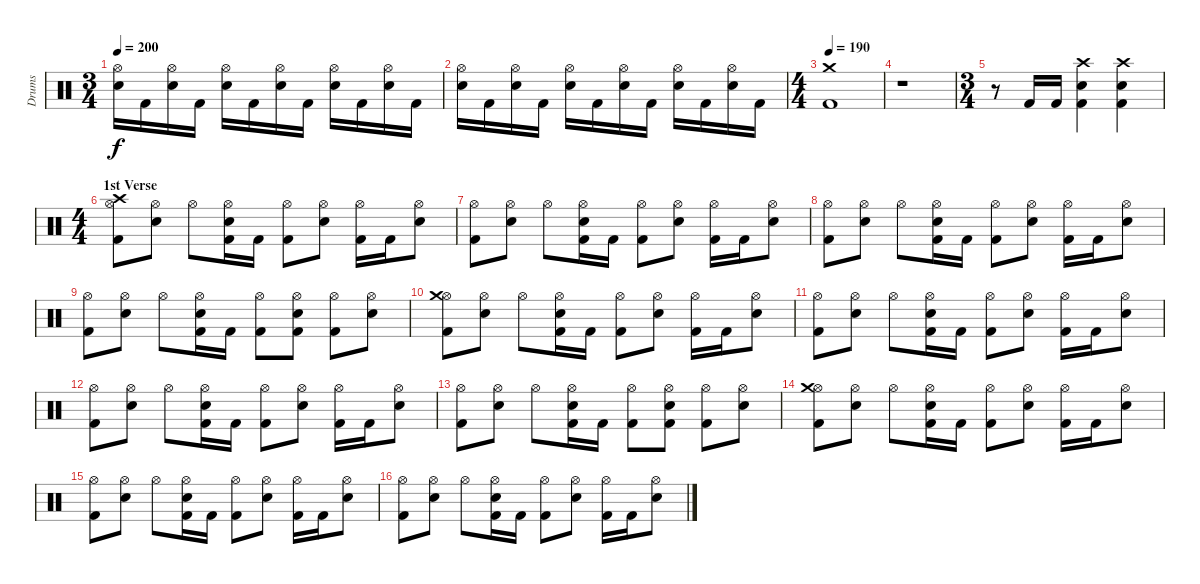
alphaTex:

\track ("Drums" "Drums") {instrument percussion}
\staff {score}
\articulation defaults
\ts (3 4)
\tempo 200
\clef neutral
\ks c
("Snare (hit) 2" "Hi-Hat (open)").16{dy f} "Kick (hit) 2".16 ("Snare (hit) 2" "Hi-Hat (open)").16 "Kick (hit) 2".16 ("Snare (hit) 2" "Hi-Hat (open)").16 "Kick (hit) 2".16 ("Snare (hit) 2" "Hi-Hat (open)").16 "Kick (hit) 2".16 ("Snare (hit) 2" "Hi-Hat (open)").16 "Kick (hit) 2".16 ("Snare (hit) 2" "Hi-Hat (open)").16 "Kick (hit) 2".16 |
("Snare (hit) 2" "Hi-Hat (open)").16 "Kick (hit) 2".16 ("Snare (hit) 2" "Hi-Hat (open)").16 "Kick (hit) 2".16 ("Snare (hit) 2" "Hi-Hat (open)").16 "Kick (hit) 2".16 ("Snare (hit) 2" "Hi-Hat (open)").16 "Kick (hit) 2".16 ("Snare (hit) 2" "Hi-Hat (open)").16 "Kick (hit) 2".16 ("Snare (hit) 2" "Hi-Hat (open)").16 "Kick (hit) 2".16 |
\ts (4 4)
\tempo 190
("Kick (hit) 2" "Crash medium (hit)").1 |
r.1 |
\ts (3 4)
r.8 "Kick (hit) 2".16 "Kick (hit) 2".16 ("Kick (hit) 2" "Electric Snare (hit)" "Crash high (hit)").4 ("Kick (hit) 2" "Electric Snare (hit)" "Crash high (hit)").4 |
\ts (4 4)
\section ("" "1st Verse")
("Kick (hit) 2" "Hi-Hat (open)" "Crash high (hit)").8 ("Electric Snare (hit)" "Hi-Hat (open)").8 "Hi-Hat (open)".8 ("Kick (hit) 2" "Electric Snare (hit)" "Hi-Hat (open)").16 "Kick (hit) 2".16 ("Kick (hit) 2" "Hi-Hat (open)").8 ("Electric Snare (hit)" "Hi-Hat (open)").8 ("Kick (hit) 2" "Hi-Hat (open)").16 "Kick (hit) 2".16 ("Electric Snare (hit)" "Hi-Hat (open)").8 |
("Kick (hit) 2" "Hi-Hat (open)").8 ("Electric Snare (hit)" "Hi-Hat (open)").8 "Hi-Hat (open)".8 ("Kick (hit) 2" "Electric Snare (hit)" "Hi-Hat (open)").16 "Kick (hit) 2".16 ("Kick (hit) 2" "Hi-Hat (open)").8 ("Electric Snare (hit)" "Hi-Hat (open)").8 ("Kick (hit) 2" "Hi-Hat (open)").16 "Kick (hit) 2".16 ("Electric Snare (hit)" "Hi-Hat (open)").8 |
("Kick (hit) 2" "Hi-Hat (open)").8 ("Electric Snare (hit)" "Hi-Hat (open)").8 "Hi-Hat (open)".8 ("Kick (hit) 2" "Electric Snare (hit)" "Hi-Hat (open)").16 "Kick (hit) 2".16 ("Kick (hit) 2" "Hi-Hat (open)").8 ("Electric Snare (hit)" "Hi-Hat (open)").8 ("Kick (hit) 2" "Hi-Hat (open)").16 "Kick (hit) 2".16 ("Electric Snare (hit)" "Hi-Hat (open)").8 |
("Kick (hit) 2" "Hi-Hat (open)").8 ("Electric Snare (hit)" "Hi-Hat (open)").8 "Hi-Hat (open)".8 ("Kick (hit) 2" "Electric Snare (hit)" "Hi-Hat (open)").16 "Kick (hit) 2".16 ("Kick (hit) 2" "Hi-Hat (open)").8 ("Kick (hit) 2" "Electric Snare (hit)" "Hi-Hat (open)").8 ("Kick (hit) 2" "Hi-Hat (open)").8 ("Electric Snare (hit)" "Hi-Hat (open)").8 |
("Kick (hit) 2" "Hi-Hat (open)" "Crash medium (hit)").8 ("Electric Snare (hit)" "Hi-Hat (open)").8 "Hi-Hat (open)".8 ("Kick (hit) 2" "Electric Snare (hit)" "Hi-Hat (open)").16 "Kick (hit) 2".16 ("Kick (hit) 2" "Hi-Hat (open)").8 ("Electric Snare (hit)" "Hi-Hat (open)").8 ("Kick (hit) 2" "Hi-Hat (open)").16 "Kick (hit) 2".16 ("Electric Snare (hit)" "Hi-Hat (open)").8 |
("Kick (hit) 2" "Hi-Hat (open)").8 ("Electric Snare (hit)" "Hi-Hat (open)").8 "Hi-Hat (open)".8 ("Kick (hit) 2" "Electric Snare (hit)" "Hi-Hat (open)").16 "Kick (hit) 2".16 ("Kick (hit) 2" "Hi-Hat (open)").8 ("Electric Snare (hit)" "Hi-Hat (open)").8 ("Kick (hit) 2" "Hi-Hat (open)").16 "Kick (hit) 2".16 ("Electric Snare (hit)" "Hi-Hat (open)").8 |
("Kick (hit) 2" "Hi-Hat (open)").8 ("Electric Snare (hit)" "Hi-Hat (open)").8 "Hi-Hat (open)".8 ("Kick (hit) 2" "Electric Snare (hit)" "Hi-Hat (open)").16 "Kick (hit) 2".16 ("Kick (hit) 2" "Hi-Hat (open)").8 ("Electric Snare (hit)" "Hi-Hat (open)").8 ("Kick (hit) 2" "Hi-Hat (open)").16 "Kick (hit) 2".16 ("Electric Snare (hit)" "Hi-Hat (open)").8 |
("Kick (hit) 2" "Hi-Hat (open)").8 ("Electric Snare (hit)" "Hi-Hat (open)").8 "Hi-Hat (open)".8 ("Kick (hit) 2" "Electric Snare (hit)" "Hi-Hat (open)").16 "Kick (hit) 2".16 ("Kick (hit) 2" "Hi-Hat (open)").8 ("Kick (hit) 2" "Electric Snare (hit)" "Hi-Hat (open)").8 ("Kick (hit) 2" "Hi-Hat (open)").8 ("Electric Snare (hit)" "Hi-Hat (open)").8 |
("Kick (hit) 2" "Hi-Hat (open)" "Crash medium (hit)").8 ("Electric Snare (hit)" "Hi-Hat (open)").8 "Hi-Hat (open)".8 ("Kick (hit) 2" "Electric Snare (hit)" "Hi-Hat (open)").16 "Kick (hit) 2".16 ("Kick (hit) 2" "Hi-Hat (open)").8 ("Electric Snare (hit)" "Hi-Hat (open)").8 ("Kick (hit) 2" "Hi-Hat (open)").16 "Kick (hit) 2".16 ("Electric Snare (hit)" "Hi-Hat (open)").8 |
("Kick (hit) 2" "Hi-Hat (open)").8 ("Electric Snare (hit)" "Hi-Hat (open)").8 "Hi-Hat (open)".8 ("Kick (hit) 2" "Electric Snare (hit)" "Hi-Hat (open)").16 "Kick (hit) 2".16 ("Kick (hit) 2" "Hi-Hat (open)").8 ("Electric Snare (hit)" "Hi-Hat (open)").8 ("Kick (hit) 2" "Hi-Hat (open)").16 "Kick (hit) 2".16 ("Electric Snare (hit)" "Hi-Hat (open)").8 |
("Kick (hit) 2" "Hi-Hat (open)").8 ("Electric Snare (hit)" "Hi-Hat (open)").8 "Hi-Hat (open)".8 ("Kick (hit) 2" "Electric Snare (hit)" "Hi-Hat (open)").16 "Kick (hit) 2".16 ("Kick (hit) 2" "Hi-Hat (open)").8 ("Electric Snare (hit)" "Hi-Hat (open)").8 ("Kick (hit) 2" "Hi-Hat (open)").16 "Kick (hit) 2".16 ("Electric Snare (hit)" "Hi-Hat (open)").8
